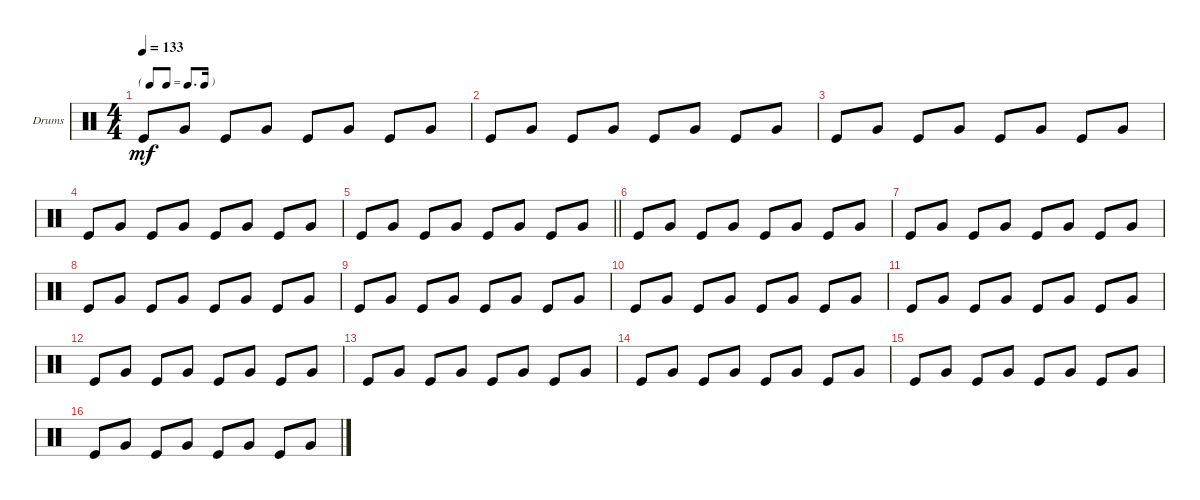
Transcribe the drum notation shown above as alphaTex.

\defaultSystemsLayout 4
\bracketExtendMode groupsimilarinstruments
\firstSystemTrackNameOrientation horizontal
\otherSystemsTrackNameOrientation horizontal
\track ("Drumkit" "Drums") {instrument percussion}
\staff {score}
\articulation defaults
\ts (4 4)
\tf dotted8th
\tempo 133
\clef neutral
\ks c "Kick (hit)".8{dy mf} "Very Low Tom (hit)".8 "Kick (hit)".8 "Very Low Tom (hit)".8 "Kick (hit)".8 "Very Low Tom (hit)".8 "Kick (hit)".8 "Very Low Tom (hit)".8
|
"Kick (hit)".8 "Very Low Tom (hit)".8 "Kick (hit)".8 "Very Low Tom (hit)".8 "Kick (hit)".8 "Very Low Tom (hit)".8 "Kick (hit)".8 "Very Low Tom (hit)".8 |
"Kick (hit)".8 "Very Low Tom (hit)".8 "Kick (hit)".8 "Very Low Tom (hit)".8 "Kick (hit)".8 "Very Low Tom (hit)".8 "Kick (hit)".8 "Very Low Tom (hit)".8 |
"Kick (hit)".8 "Very Low Tom (hit)".8 "Kick (hit)".8 "Very Low Tom (hit)".8 "Kick (hit)".8 "Very Low Tom (hit)".8 "Kick (hit)".8 "Very Low Tom (hit)".8 |
\barLineRight lightlight "Kick (hit)".8 "Very Low Tom (hit)".8 "Kick (hit)".8 "Very Low Tom (hit)".8 "Kick (hit)".8 "Very Low Tom (hit)".8 "Kick (hit)".8 "Very Low Tom (hit)".8
|
"Kick (hit)".8 "Very Low Tom (hit)".8 "Kick (hit)".8 "Very Low Tom (hit)".8 "Kick (hit)".8 "Very Low Tom (hit)".8 "Kick (hit)".8 "Very Low Tom (hit)".8 |
"Kick (hit)".8 "Very Low Tom (hit)".8 "Kick (hit)".8 "Very Low Tom (hit)".8 "Kick (hit)".8 "Very Low Tom (hit)".8 "Kick (hit)".8 "Very Low Tom (hit)".8 |
"Kick (hit)".8 "Very Low Tom (hit)".8 "Kick (hit)".8 "Very Low Tom (hit)".8 "Kick (hit)".8 "Very Low Tom (hit)".8 "Kick (hit)".8 "Very Low Tom (hit)".8 |
"Kick (hit)".8 "Very Low Tom (hit)".8 "Kick (hit)".8 "Very Low Tom (hit)".8 "Kick (hit)".8 "Very Low Tom (hit)".8 "Kick (hit)".8 "Very Low Tom (hit)".8 |
"Kick (hit)".8 "Very Low Tom (hit)".8 "Kick (hit)".8 "Very Low Tom (hit)".8 "Kick (hit)".8 "Very Low Tom (hit)".8 "Kick (hit)".8 "Very Low Tom (hit)".8 |
"Kick (hit)".8 "Very Low Tom (hit)".8 "Kick (hit)".8 "Very Low Tom (hit)".8 "Kick (hit)".8 "Very Low Tom (hit)".8 "Kick (hit)".8 "Very Low Tom (hit)".8 |
"Kick (hit)".8 "Very Low Tom (hit)".8 "Kick (hit)".8 "Very Low Tom (hit)".8 "Kick (hit)".8 "Very Low Tom (hit)".8 "Kick (hit)".8 "Very Low Tom (hit)".8 |
"Kick (hit)".8 "Very Low Tom (hit)".8 "Kick (hit)".8 "Very Low Tom (hit)".8 "Kick (hit)".8 "Very Low Tom (hit)".8 "Kick (hit)".8 "Very Low Tom (hit)".8 |
"Kick (hit)".8 "Very Low Tom (hit)".8 "Kick (hit)".8 "Very Low Tom (hit)".8 "Kick (hit)".8 "Very Low Tom (hit)".8 "Kick (hit)".8 "Very Low Tom (hit)".8 |
"Kick (hit)".8 "Very Low Tom (hit)".8 "Kick (hit)".8 "Very Low Tom (hit)".8 "Kick (hit)".8 "Very Low Tom (hit)".8 "Kick (hit)".8 "Very Low Tom (hit)".8 |
"Kick (hit)".8 "Very Low Tom (hit)".8 "Kick (hit)".8 "Very Low Tom (hit)".8 "Kick (hit)".8 "Very Low Tom (hit)".8 "Kick (hit)".8 "Very Low Tom (hit)".8
